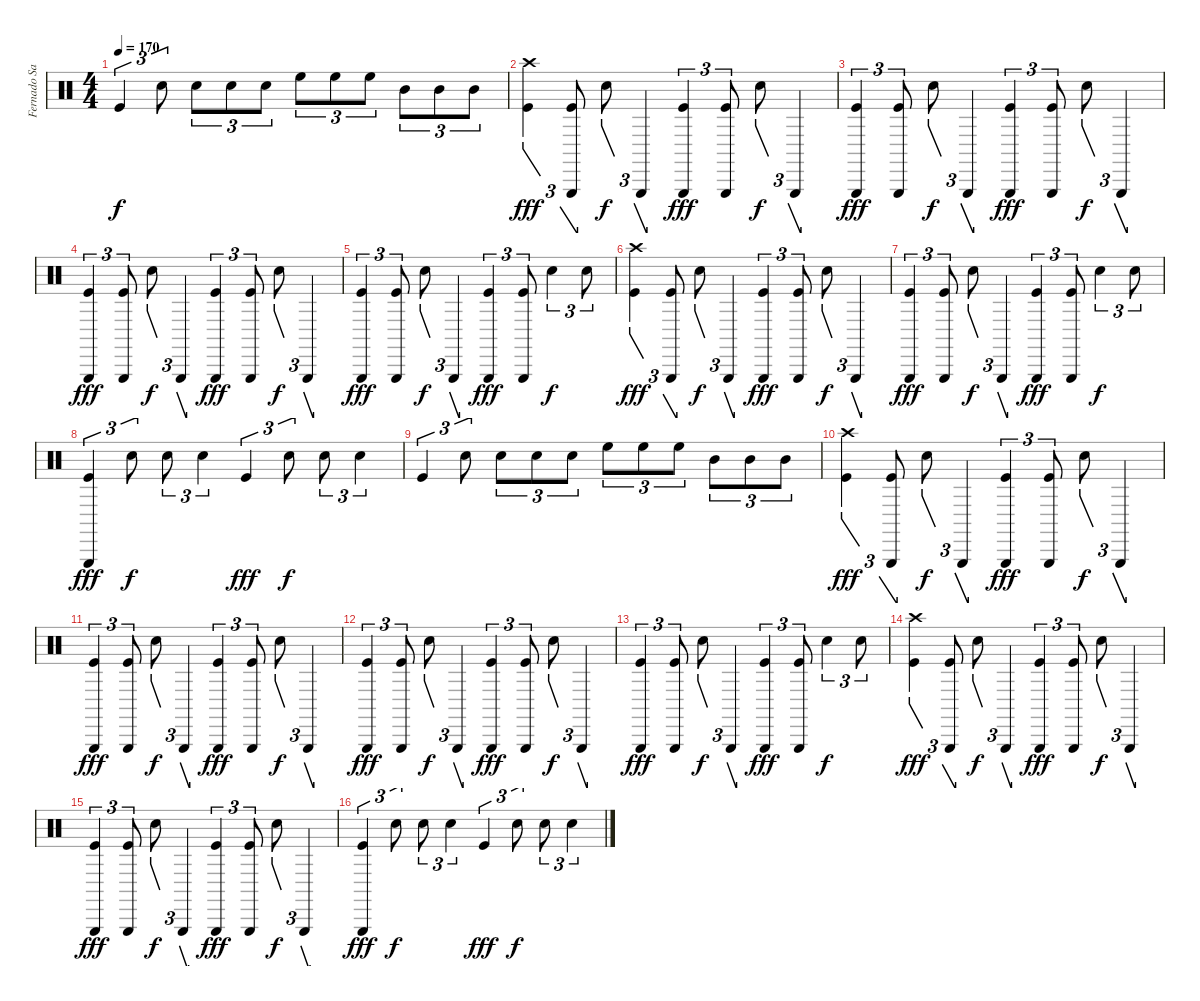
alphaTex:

\track ("Fernado Sanchez" "Fernado Sa") {instrument percussion}
\staff {score}
\articulation defaults
\ts (4 4)
\tempo 170
\clef neutral
\ks c "Kick (hit)".4{tu (3 2) dy f} "Electric Snare (hit)".8{tu (3 2)} "Electric Snare (hit)".8{tu (3 2)} "Electric Snare (hit)".8{tu (3 2)} "Electric Snare (hit)".8{tu (3 2)} "High Floor Tom (hit)".8{tu (3 2)} "High Floor Tom (hit)".8{tu (3 2)} "High Floor Tom (hit)".8{tu (3 2)} "Mid Tom (hit)".8{tu (3 2)} "Mid Tom (hit)".8{tu (3 2)} "Mid Tom (hit)".8{tu (3 2)}
|
("Crash high (hit)" "Kick (hit)").4{tu (3 2) dy fff} ("Triangle (hit)" "Kick (hit)").8{tu (3 2)} "Electric Snare (hit)".8{tu (3 2) dy f} "Triangle (hit)".4{tu (3 2)} ("Triangle (hit)" "Kick (hit)").4{tu (3 2) dy fff} ("Triangle (hit)" "Kick (hit)").8{tu (3 2)} "Electric Snare (hit)".8{tu (3 2) dy f} "Triangle (hit)".4{tu (3 2)} |
("Triangle (hit)" "Kick (hit)").4{tu (3 2) dy fff} ("Triangle (hit)" "Kick (hit)").8{tu (3 2)} "Electric Snare (hit)".8{tu (3 2) dy f} "Triangle (hit)".4{tu (3 2)} ("Triangle (hit)" "Kick (hit)").4{tu (3 2) dy fff} ("Triangle (hit)" "Kick (hit)").8{tu (3 2)} "Electric Snare (hit)".8{tu (3 2) dy f} "Triangle (hit)".4{tu (3 2)} |
("Triangle (hit)" "Kick (hit)").4{tu (3 2) dy fff} ("Triangle (hit)" "Kick (hit)").8{tu (3 2)} "Electric Snare (hit)".8{tu (3 2) dy f} "Triangle (hit)".4{tu (3 2)} ("Triangle (hit)" "Kick (hit)").4{tu (3 2) dy fff} ("Triangle (hit)" "Kick (hit)").8{tu (3 2)} "Electric Snare (hit)".8{tu (3 2) dy f} "Triangle (hit)".4{tu (3 2)} |
("Triangle (hit)" "Kick (hit)").4{tu (3 2) dy fff} ("Triangle (hit)" "Kick (hit)").8{tu (3 2)} "Electric Snare (hit)".8{tu (3 2) dy f} "Triangle (hit)".4{tu (3 2)} ("Triangle (hit)" "Kick (hit)").4{tu (3 2) dy fff} ("Triangle (hit)" "Kick (hit)").8{tu (3 2)} "Electric Snare (hit)".4{tu (3 2) dy f} "Electric Snare (hit)".8{tu (3 2)} |
("Crash high (hit)" "Kick (hit)").4{tu (3 2) dy fff} ("Triangle (hit)" "Kick (hit)").8{tu (3 2)} "Electric Snare (hit)".8{tu (3 2) dy f} "Triangle (hit)".4{tu (3 2)} ("Triangle (hit)" "Kick (hit)").4{tu (3 2) dy fff} ("Triangle (hit)" "Kick (hit)").8{tu (3 2)} "Electric Snare (hit)".8{tu (3 2) dy f} "Triangle (hit)".4{tu (3 2)} |
("Triangle (hit)" "Kick (hit)").4{tu (3 2) dy fff} ("Triangle (hit)" "Kick (hit)").8{tu (3 2)} "Electric Snare (hit)".8{tu (3 2) dy f} "Triangle (hit)".4{tu (3 2)} ("Triangle (hit)" "Kick (hit)").4{tu (3 2) dy fff} ("Triangle (hit)" "Kick (hit)").8{tu (3 2)} "Electric Snare (hit)".4{tu (3 2) dy f} "Electric Snare (hit)".8{tu (3 2)} |
("Triangle (hit)" "Kick (hit)").4{tu (3 2) dy fff} "Electric Snare (hit)".8{tu (3 2) dy f} "Electric Snare (hit)".8{tu (3 2)} "Electric Snare (hit)".4{tu (3 2)} "Kick (hit)".4{tu (3 2) dy fff} "Electric Snare (hit)".8{tu (3 2) dy f} "Electric Snare (hit)".8{tu (3 2)} "Electric Snare (hit)".4{tu (3 2)} |
"Kick (hit)".4{tu (3 2)} "Electric Snare (hit)".8{tu (3 2)} "Electric Snare (hit)".8{tu (3 2)} "Electric Snare (hit)".8{tu (3 2)} "Electric Snare (hit)".8{tu (3 2)} "High Floor Tom (hit)".8{tu (3 2)} "High Floor Tom (hit)".8{tu (3 2)} "High Floor Tom (hit)".8{tu (3 2)} "Mid Tom (hit)".8{tu (3 2)} "Mid Tom (hit)".8{tu (3 2)} "Mid Tom (hit)".8{tu (3 2)} |
("Crash high (hit)" "Kick (hit)").4{tu (3 2) dy fff} ("Triangle (hit)" "Kick (hit)").8{tu (3 2)} "Electric Snare (hit)".8{tu (3 2) dy f} "Triangle (hit)".4{tu (3 2)} ("Triangle (hit)" "Kick (hit)").4{tu (3 2) dy fff} ("Triangle (hit)" "Kick (hit)").8{tu (3 2)} "Electric Snare (hit)".8{tu (3 2) dy f} "Triangle (hit)".4{tu (3 2)} |
("Triangle (hit)" "Kick (hit)").4{tu (3 2) dy fff} ("Triangle (hit)" "Kick (hit)").8{tu (3 2)} "Electric Snare (hit)".8{tu (3 2) dy f} "Triangle (hit)".4{tu (3 2)} ("Triangle (hit)" "Kick (hit)").4{tu (3 2) dy fff} ("Triangle (hit)" "Kick (hit)").8{tu (3 2)} "Electric Snare (hit)".8{tu (3 2) dy f} "Triangle (hit)".4{tu (3 2)} |
("Triangle (hit)" "Kick (hit)").4{tu (3 2) dy fff} ("Triangle (hit)" "Kick (hit)").8{tu (3 2)} "Electric Snare (hit)".8{tu (3 2) dy f} "Triangle (hit)".4{tu (3 2)} ("Triangle (hit)" "Kick (hit)").4{tu (3 2) dy fff} ("Triangle (hit)" "Kick (hit)").8{tu (3 2)} "Electric Snare (hit)".8{tu (3 2) dy f} "Triangle (hit)".4{tu (3 2)} |
("Triangle (hit)" "Kick (hit)").4{tu (3 2) dy fff} ("Triangle (hit)" "Kick (hit)").8{tu (3 2)} "Electric Snare (hit)".8{tu (3 2) dy f} "Triangle (hit)".4{tu (3 2)} ("Triangle (hit)" "Kick (hit)").4{tu (3 2) dy fff} ("Triangle (hit)" "Kick (hit)").8{tu (3 2)} "Electric Snare (hit)".4{tu (3 2) dy f} "Electric Snare (hit)".8{tu (3 2)} |
("Crash high (hit)" "Kick (hit)").4{tu (3 2) dy fff} ("Triangle (hit)" "Kick (hit)").8{tu (3 2)} "Electric Snare (hit)".8{tu (3 2) dy f} "Triangle (hit)".4{tu (3 2)} ("Triangle (hit)" "Kick (hit)").4{tu (3 2) dy fff} ("Triangle (hit)" "Kick (hit)").8{tu (3 2)} "Electric Snare (hit)".8{tu (3 2) dy f} "Triangle (hit)".4{tu (3 2)} |
("Triangle (hit)" "Kick (hit)").4{tu (3 2) dy fff} ("Triangle (hit)" "Kick (hit)").8{tu (3 2)} "Electric Snare (hit)".8{tu (3 2) dy f} "Triangle (hit)".4{tu (3 2)} ("Triangle (hit)" "Kick (hit)").4{tu (3 2) dy fff} ("Triangle (hit)" "Kick (hit)").8{tu (3 2)} "Electric Snare (hit)".8{tu (3 2) dy f} "Triangle (hit)".4{tu (3 2)} |
("Triangle (hit)" "Kick (hit)").4{tu (3 2) dy fff} "Electric Snare (hit)".8{tu (3 2) dy f} "Electric Snare (hit)".8{tu (3 2)} "Electric Snare (hit)".4{tu (3 2)} "Kick (hit)".4{tu (3 2) dy fff} "Electric Snare (hit)".8{tu (3 2) dy f} "Electric Snare (hit)".8{tu (3 2)} "Electric Snare (hit)".4{tu (3 2)}
